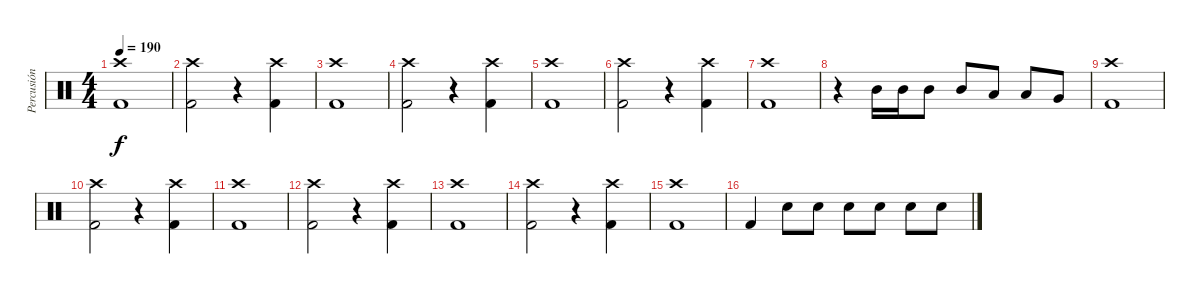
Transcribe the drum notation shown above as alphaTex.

\track ("Percusión" "Percusión") {instrument percussion}
\staff {score}
\articulation defaults
\ts (4 4)
\tempo 190
\clef neutral
\ks c
("Crash high (hit)" "Kick (hit) 2").1{dy f} |
("Crash high (hit)" "Kick (hit) 2").2 r.4 ("Crash high (hit)" "Kick (hit) 2").4 |
("Crash high (hit)" "Kick (hit) 2").1 |
("Crash high (hit)" "Kick (hit) 2").2 r.4 ("Crash high (hit)" "Kick (hit) 2").4 |
("Crash high (hit)" "Kick (hit) 2").1 |
("Crash high (hit)" "Kick (hit) 2").2 r.4 ("Crash high (hit)" "Kick (hit) 2").4 |
("Crash high (hit)" "Kick (hit) 2").1 |
r.4 "Mid Tom (hit)".16 "Mid Tom (hit)".16 "Mid Tom (hit)".8 "Mid Tom (hit)".8 "Low Tom (hit)".8 "Low Tom (hit)".8 "Very Low Tom (hit)".8 |
("Crash high (hit)" "Kick (hit) 2").1 |
("Crash high (hit)" "Kick (hit) 2").2 r.4 ("Crash high (hit)" "Kick (hit) 2").4 |
("Crash high (hit)" "Kick (hit) 2").1 |
("Crash high (hit)" "Kick (hit) 2").2 r.4 ("Crash high (hit)" "Kick (hit) 2").4 |
("Crash high (hit)" "Kick (hit) 2").1 |
("Crash high (hit)" "Kick (hit) 2").2 r.4 ("Crash high (hit)" "Kick (hit) 2").4 |
("Crash high (hit)" "Kick (hit) 2").1 |
"Kick (hit) 2".4 "Snare (hit) 2".8 "Snare (hit) 2".8 "Snare (hit) 2".8 "Snare (hit) 2".8 "Snare (hit) 2".8 "Snare (hit) 2".8
